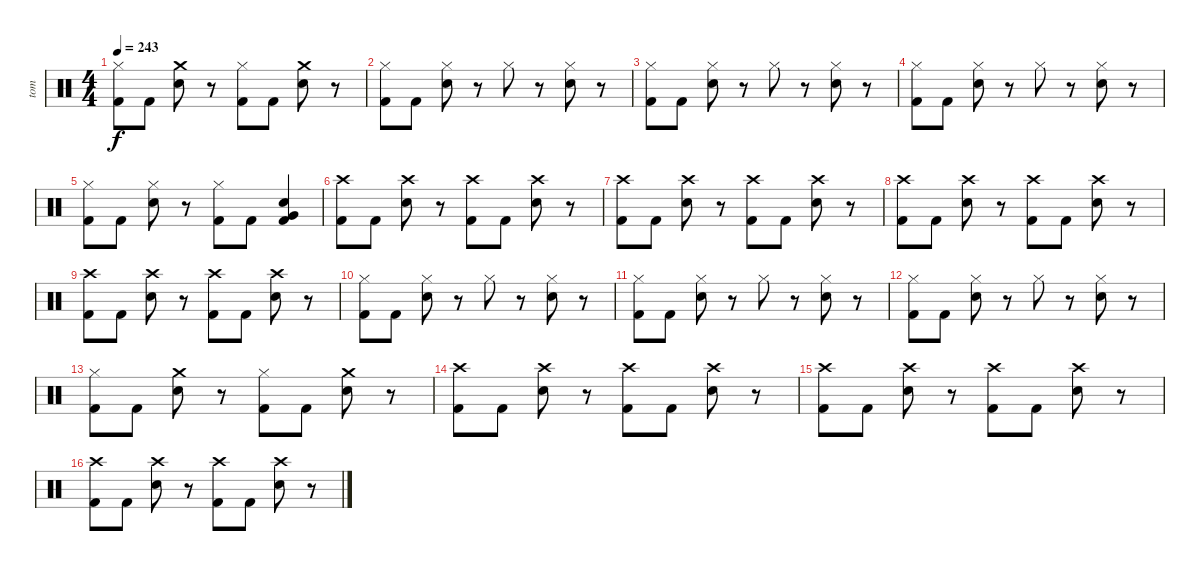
\track ("tom" "tom") {instrument percussion}
\staff {score}
\articulation defaults
\ts (4 4)
\tempo 243
\clef neutral
\ks c
("Hi-Hat (closed)" "Kick (hit) 2").8{dy f} "Kick (hit) 2".8 ("Crash medium (hit)" "Electric Snare (hit)").8 r.8 ("Hi-Hat (closed)" "Kick (hit) 2").8 "Kick (hit) 2".8 ("Crash medium (hit)" "Electric Snare (hit)").8 r.8 |
("Hi-Hat (closed)" "Kick (hit) 2").8 "Kick (hit) 2".8 ("Hi-Hat (closed)" "Electric Snare (hit)").8 r.8 "Hi-Hat (closed)".8 r.8 ("Hi-Hat (closed)" "Electric Snare (hit)").8 r.8 |
("Hi-Hat (closed)" "Kick (hit) 2").8 "Kick (hit) 2".8 ("Hi-Hat (closed)" "Electric Snare (hit)").8 r.8 "Hi-Hat (closed)".8 r.8 ("Hi-Hat (closed)" "Electric Snare (hit)").8 r.8 |
("Hi-Hat (closed)" "Kick (hit) 2").8 "Kick (hit) 2".8 ("Hi-Hat (closed)" "Electric Snare (hit)").8 r.8 "Hi-Hat (closed)".8 r.8 ("Hi-Hat (closed)" "Electric Snare (hit)").8 r.8 |
("Hi-Hat (closed)" "Kick (hit) 2").8 "Kick (hit) 2".8 ("Hi-Hat (closed)" "Electric Snare (hit)").8 r.8 ("Hi-Hat (closed)" "Kick (hit) 2").8 "Kick (hit) 2".8 ("Very Low Tom (hit)" "Kick (hit) 2" "Electric Snare (hit)").4 |
("Crash high (hit)" "Kick (hit) 2").8 "Kick (hit) 2".8 ("Crash high (hit)" "Electric Snare (hit)").8 r.8 ("Crash high (hit)" "Kick (hit) 2").8 "Kick (hit) 2".8 ("Crash high (hit)" "Electric Snare (hit)").8 r.8 |
("Crash high (hit)" "Kick (hit) 2").8 "Kick (hit) 2".8 ("Crash high (hit)" "Electric Snare (hit)").8 r.8 ("Crash high (hit)" "Kick (hit) 2").8 "Kick (hit) 2".8 ("Crash high (hit)" "Electric Snare (hit)").8 r.8 |
("Crash high (hit)" "Kick (hit) 2").8 "Kick (hit) 2".8 ("Crash high (hit)" "Electric Snare (hit)").8 r.8 ("Crash high (hit)" "Kick (hit) 2").8 "Kick (hit) 2".8 ("Crash high (hit)" "Electric Snare (hit)").8 r.8 |
("Crash high (hit)" "Kick (hit) 2").8 "Kick (hit) 2".8 ("Crash high (hit)" "Electric Snare (hit)").8 r.8 ("Crash high (hit)" "Kick (hit) 2").8 "Kick (hit) 2".8 ("Crash high (hit)" "Electric Snare (hit)").8 r.8 |
("Hi-Hat (closed)" "Kick (hit) 2").8 "Kick (hit) 2".8 ("Hi-Hat (closed)" "Electric Snare (hit)").8 r.8 "Hi-Hat (closed)".8 r.8 ("Hi-Hat (closed)" "Electric Snare (hit)").8 r.8 |
("Hi-Hat (closed)" "Kick (hit) 2").8 "Kick (hit) 2".8 ("Hi-Hat (closed)" "Electric Snare (hit)").8 r.8 "Hi-Hat (closed)".8 r.8 ("Hi-Hat (closed)" "Electric Snare (hit)").8 r.8 |
("Hi-Hat (closed)" "Kick (hit) 2").8 "Kick (hit) 2".8 ("Hi-Hat (closed)" "Electric Snare (hit)").8 r.8 "Hi-Hat (closed)".8 r.8 ("Hi-Hat (closed)" "Electric Snare (hit)").8 r.8 |
("Hi-Hat (closed)" "Kick (hit) 2").8 "Kick (hit) 2".8 ("Crash medium (hit)" "Electric Snare (hit)").8 r.8 ("Hi-Hat (closed)" "Kick (hit) 2").8 "Kick (hit) 2".8 ("Crash medium (hit)" "Electric Snare (hit)").8 r.8 |
("Crash high (hit)" "Kick (hit) 2").8 "Kick (hit) 2".8 ("Crash high (hit)" "Electric Snare (hit)").8 r.8 ("Crash high (hit)" "Kick (hit) 2").8 "Kick (hit) 2".8 ("Crash high (hit)" "Electric Snare (hit)").8 r.8 |
("Crash high (hit)" "Kick (hit) 2").8 "Kick (hit) 2".8 ("Crash high (hit)" "Electric Snare (hit)").8 r.8 ("Crash high (hit)" "Kick (hit) 2").8 "Kick (hit) 2".8 ("Crash high (hit)" "Electric Snare (hit)").8 r.8 |
("Crash high (hit)" "Kick (hit) 2").8 "Kick (hit) 2".8 ("Crash high (hit)" "Electric Snare (hit)").8 r.8 ("Crash high (hit)" "Kick (hit) 2").8 "Kick (hit) 2".8 ("Crash high (hit)" "Electric Snare (hit)").8 r.8
